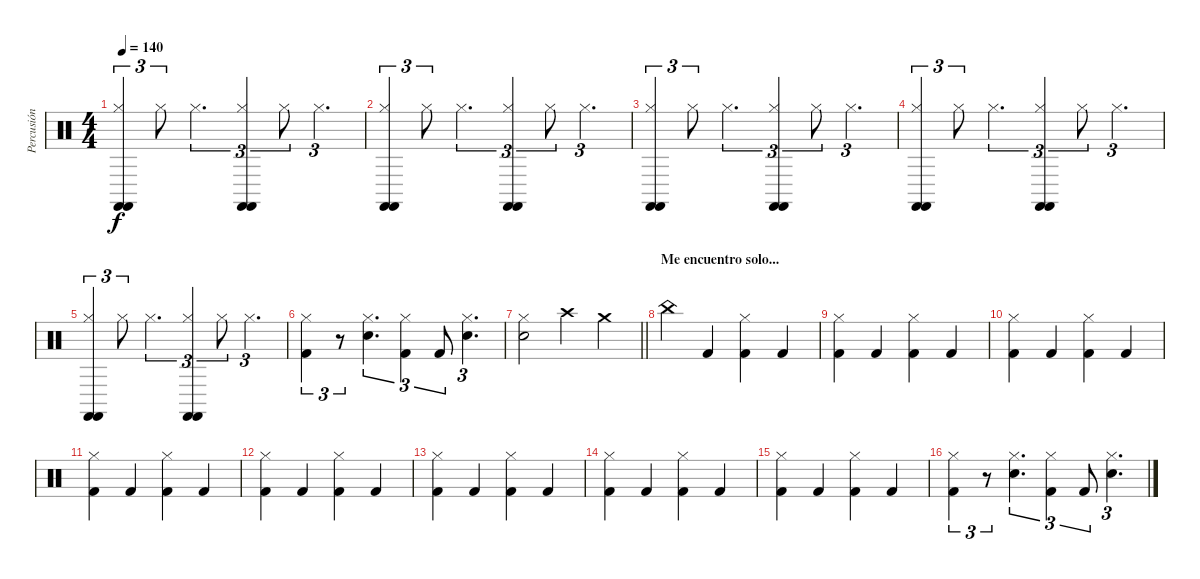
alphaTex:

\track ("Percusión" "Percusión") {instrument percussion}
\staff {score}
\articulation defaults
\ts (4 4)
\tempo 140
\clef neutral
\ks c
("Hi-Hat (closed)" "Castanets (hit)" "Castanets (hit)").4{tu (3 2) dy f} "Hi-Hat (closed)".8{tu (3 2)} "Hi-Hat (closed)".4{d tu (3 2)} ("Hi-Hat (closed)" "Castanets (hit)" "Castanets (hit)").4{tu (3 2)} "Hi-Hat (closed)".8{tu (3 2)} "Hi-Hat (closed)".4{d tu (3 2)} |
("Hi-Hat (closed)" "Castanets (hit)" "Castanets (hit)").4{tu (3 2)} "Hi-Hat (closed)".8{tu (3 2)} "Hi-Hat (closed)".4{d tu (3 2)} ("Hi-Hat (closed)" "Castanets (hit)" "Castanets (hit)").4{tu (3 2)} "Hi-Hat (closed)".8{tu (3 2)} "Hi-Hat (closed)".4{d tu (3 2)} |
("Hi-Hat (closed)" "Castanets (hit)" "Castanets (hit)").4{tu (3 2)} "Hi-Hat (closed)".8{tu (3 2)} "Hi-Hat (closed)".4{d tu (3 2)} ("Hi-Hat (closed)" "Castanets (hit)" "Castanets (hit)").4{tu (3 2)} "Hi-Hat (closed)".8{tu (3 2)} "Hi-Hat (closed)".4{d tu (3 2)} |
("Hi-Hat (closed)" "Castanets (hit)" "Castanets (hit)").4{tu (3 2)} "Hi-Hat (closed)".8{tu (3 2)} "Hi-Hat (closed)".4{d tu (3 2)} ("Hi-Hat (closed)" "Castanets (hit)" "Castanets (hit)").4{tu (3 2)} "Hi-Hat (closed)".8{tu (3 2)} "Hi-Hat (closed)".4{d tu (3 2)} |
("Hi-Hat (closed)" "Castanets (hit)" "Castanets (hit)").4{tu (3 2)} "Hi-Hat (closed)".8{tu (3 2)} "Hi-Hat (closed)".4{d tu (3 2)} ("Hi-Hat (closed)" "Castanets (hit)" "Castanets (hit)").4{tu (3 2)} "Hi-Hat (closed)".8{tu (3 2)} "Hi-Hat (closed)".4{d tu (3 2)} |
("Hi-Hat (closed)" "Kick (hit) 2").4{tu (3 2)} r.8{tu (3 2)} ("Hi-Hat (closed)" "Snare (hit) 2").4{d tu (3 2)} ("Hi-Hat (closed)" "Kick (hit) 2").4{tu (3 2)} "Kick (hit) 2".8{tu (3 2)} ("Hi-Hat (closed)" "Snare (hit) 2").4{d tu (3 2)} |
\barLineRight lightlight
("Hi-Hat (closed)" "Snare (hit) 2").2 "Crash high (hit)".4 "Crash medium (hit)".4 |
\section ("" "Me encuentro solo...")
"China (hit)".4 "Kick (hit) 2".4 ("Hi-Hat (closed)" "Kick (hit) 2").4 "Kick (hit) 2".4 |
("Hi-Hat (closed)" "Kick (hit) 2").4 "Kick (hit) 2".4 ("Hi-Hat (closed)" "Kick (hit) 2").4 "Kick (hit) 2".4 |
("Hi-Hat (closed)" "Kick (hit) 2").4 "Kick (hit) 2".4 ("Hi-Hat (closed)" "Kick (hit) 2").4 "Kick (hit) 2".4 |
("Hi-Hat (closed)" "Kick (hit) 2").4 "Kick (hit) 2".4 ("Hi-Hat (closed)" "Kick (hit) 2").4 "Kick (hit) 2".4 |
("Hi-Hat (closed)" "Kick (hit) 2").4 "Kick (hit) 2".4 ("Hi-Hat (closed)" "Kick (hit) 2").4 "Kick (hit) 2".4 |
("Hi-Hat (closed)" "Kick (hit) 2").4 "Kick (hit) 2".4 ("Hi-Hat (closed)" "Kick (hit) 2").4 "Kick (hit) 2".4 |
("Hi-Hat (closed)" "Kick (hit) 2").4 "Kick (hit) 2".4 ("Hi-Hat (closed)" "Kick (hit) 2").4 "Kick (hit) 2".4 |
("Hi-Hat (closed)" "Kick (hit) 2").4 "Kick (hit) 2".4 ("Hi-Hat (closed)" "Kick (hit) 2").4 "Kick (hit) 2".4 |
("Hi-Hat (closed)" "Kick (hit) 2").4{tu (3 2)} r.8{tu (3 2)} ("Hi-Hat (closed)" "Snare (hit) 2").4{d tu (3 2)} ("Hi-Hat (closed)" "Kick (hit) 2").4{tu (3 2)} "Kick (hit) 2".8{tu (3 2)} ("Hi-Hat (closed)" "Snare (hit) 2").4{d tu (3 2)}
